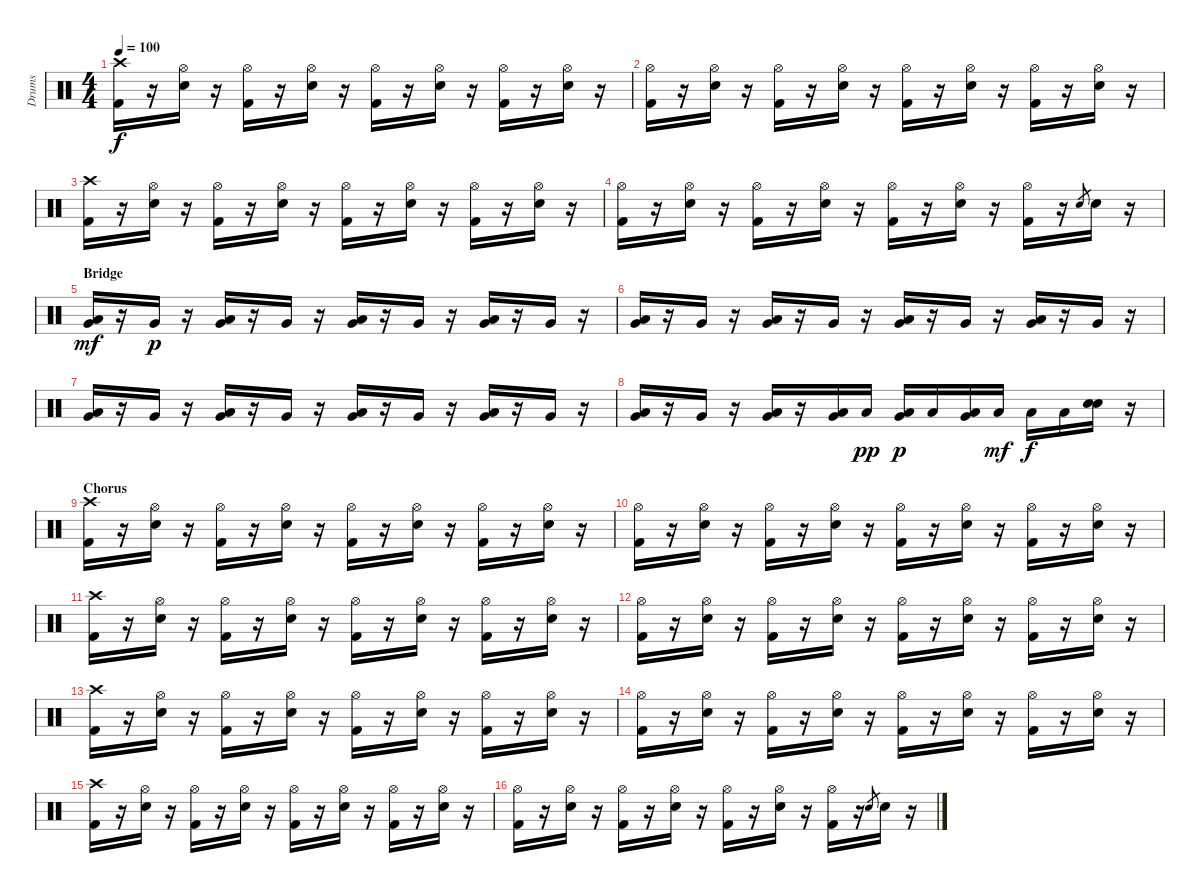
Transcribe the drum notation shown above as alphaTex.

\track ("Drums" "Drums") {instrument percussion}
\staff {score}
\articulation defaults
\ts (4 4)
\tempo 100
\clef neutral
\ks c
("Crash high (hit)" "Kick (hit) 2").16{dy f} r.16 ("Hi-Hat (open)" "Electric Snare (hit)").16 r.16 ("Hi-Hat (open)" "Kick (hit) 2").16 r.16 ("Hi-Hat (open)" "Electric Snare (hit)").16 r.16 ("Hi-Hat (open)" "Kick (hit) 2").16 r.16 ("Hi-Hat (open)" "Electric Snare (hit)").16 r.16 ("Hi-Hat (open)" "Kick (hit) 2").16 r.16 ("Hi-Hat (open)" "Electric Snare (hit)").16 r.16 |
("Hi-Hat (open)" "Kick (hit) 2").16 r.16 ("Hi-Hat (open)" "Electric Snare (hit)").16 r.16 ("Hi-Hat (open)" "Kick (hit) 2").16 r.16 ("Hi-Hat (open)" "Electric Snare (hit)").16 r.16 ("Hi-Hat (open)" "Kick (hit) 2").16 r.16 ("Hi-Hat (open)" "Electric Snare (hit)").16 r.16 ("Hi-Hat (open)" "Kick (hit) 2").16 r.16 ("Hi-Hat (open)" "Electric Snare (hit)").16 r.16 |
("Crash high (hit)" "Kick (hit) 2").16 r.16 ("Hi-Hat (open)" "Electric Snare (hit)").16 r.16 ("Hi-Hat (open)" "Kick (hit) 2").16 r.16 ("Hi-Hat (open)" "Electric Snare (hit)").16 r.16 ("Hi-Hat (open)" "Kick (hit) 2").16 r.16 ("Hi-Hat (open)" "Electric Snare (hit)").16 r.16 ("Hi-Hat (open)" "Kick (hit) 2").16 r.16 ("Hi-Hat (open)" "Electric Snare (hit)").16 r.16 |
("Hi-Hat (open)" "Kick (hit) 2").16 r.16 ("Hi-Hat (open)" "Electric Snare (hit)").16 r.16 ("Hi-Hat (open)" "Kick (hit) 2").16 r.16 ("Hi-Hat (open)" "Electric Snare (hit)").16 r.16 ("Hi-Hat (open)" "Kick (hit) 2").16 r.16 ("Hi-Hat (open)" "Electric Snare (hit)").16 r.16 ("Hi-Hat (open)" "Kick (hit) 2").16 r.16 "Electric Snare (hit)".8{gr} "Electric Snare (hit)".16 r.16 |
\section ("" "Bridge")
("Low Tom (hit)" "Very Low Tom (hit)").16{dy mf} r.16 "Very Low Tom (hit)".16{dy p} r.16 ("Low Tom (hit)" "Very Low Tom (hit)").16 r.16 "Very Low Tom (hit)".16 r.16 ("Low Tom (hit)" "Very Low Tom (hit)").16 r.16 "Very Low Tom (hit)".16 r.16 ("Low Tom (hit)" "Very Low Tom (hit)").16 r.16 "Very Low Tom (hit)".16 r.16 |
("Low Tom (hit)" "Very Low Tom (hit)").16 r.16 "Very Low Tom (hit)".16 r.16 ("Low Tom (hit)" "Very Low Tom (hit)").16 r.16 "Very Low Tom (hit)".16 r.16 ("Low Tom (hit)" "Very Low Tom (hit)").16 r.16 "Very Low Tom (hit)".16 r.16 ("Low Tom (hit)" "Very Low Tom (hit)").16 r.16 "Very Low Tom (hit)".16 r.16 |
("Low Tom (hit)" "Very Low Tom (hit)").16 r.16 "Very Low Tom (hit)".16 r.16 ("Low Tom (hit)" "Very Low Tom (hit)").16 r.16 "Very Low Tom (hit)".16 r.16 ("Low Tom (hit)" "Very Low Tom (hit)").16 r.16 "Very Low Tom (hit)".16 r.16 ("Low Tom (hit)" "Very Low Tom (hit)").16 r.16 "Very Low Tom (hit)".16 r.16 |
("Low Tom (hit)" "Very Low Tom (hit)").16 r.16 "Very Low Tom (hit)".16 r.16 ("Low Tom (hit)" "Very Low Tom (hit)").16 r.16 ("Low Tom (hit)" "Very Low Tom (hit)").16 "Low Tom (hit)".16{dy pp} ("Low Tom (hit)" "Very Low Tom (hit)").16{dy p} "Low Tom (hit)".16 ("Low Tom (hit)" "Very Low Tom (hit)").16 "Low Tom (hit)".16{dy mf} "Low Tom (hit)".16{dy f} "Low Tom (hit)".16 ("Electric Snare (hit)" "Electric Snare (hit)").16{bd 120} r.16 |
\section ("" "Chorus")
("Crash high (hit)" "Kick (hit) 2").16 r.16 ("Hi-Hat (open)" "Electric Snare (hit)").16 r.16 ("Hi-Hat (open)" "Kick (hit) 2").16 r.16 ("Hi-Hat (open)" "Electric Snare (hit)").16 r.16 ("Hi-Hat (open)" "Kick (hit) 2").16 r.16 ("Hi-Hat (open)" "Electric Snare (hit)").16 r.16 ("Hi-Hat (open)" "Kick (hit) 2").16 r.16 ("Hi-Hat (open)" "Electric Snare (hit)").16 r.16 |
("Hi-Hat (open)" "Kick (hit) 2").16 r.16 ("Hi-Hat (open)" "Electric Snare (hit)").16 r.16 ("Hi-Hat (open)" "Kick (hit) 2").16 r.16 ("Hi-Hat (open)" "Electric Snare (hit)").16 r.16 ("Hi-Hat (open)" "Kick (hit) 2").16 r.16 ("Hi-Hat (open)" "Electric Snare (hit)").16 r.16 ("Hi-Hat (open)" "Kick (hit) 2").16 r.16 ("Hi-Hat (open)" "Electric Snare (hit)").16 r.16 |
("Crash high (hit)" "Kick (hit) 2").16 r.16 ("Hi-Hat (open)" "Electric Snare (hit)").16 r.16 ("Hi-Hat (open)" "Kick (hit) 2").16 r.16 ("Hi-Hat (open)" "Electric Snare (hit)").16 r.16 ("Hi-Hat (open)" "Kick (hit) 2").16 r.16 ("Hi-Hat (open)" "Electric Snare (hit)").16 r.16 ("Hi-Hat (open)" "Kick (hit) 2").16 r.16 ("Hi-Hat (open)" "Electric Snare (hit)").16 r.16 |
("Hi-Hat (open)" "Kick (hit) 2").16 r.16 ("Hi-Hat (open)" "Electric Snare (hit)").16 r.16 ("Hi-Hat (open)" "Kick (hit) 2").16 r.16 ("Hi-Hat (open)" "Electric Snare (hit)").16 r.16 ("Hi-Hat (open)" "Kick (hit) 2").16 r.16 ("Hi-Hat (open)" "Electric Snare (hit)").16 r.16 ("Hi-Hat (open)" "Kick (hit) 2").16 r.16 ("Hi-Hat (open)" "Electric Snare (hit)").16 r.16 |
("Crash high (hit)" "Kick (hit) 2").16 r.16 ("Hi-Hat (open)" "Electric Snare (hit)").16 r.16 ("Hi-Hat (open)" "Kick (hit) 2").16 r.16 ("Hi-Hat (open)" "Electric Snare (hit)").16 r.16 ("Hi-Hat (open)" "Kick (hit) 2").16 r.16 ("Hi-Hat (open)" "Electric Snare (hit)").16 r.16 ("Hi-Hat (open)" "Kick (hit) 2").16 r.16 ("Hi-Hat (open)" "Electric Snare (hit)").16 r.16 |
("Hi-Hat (open)" "Kick (hit) 2").16 r.16 ("Hi-Hat (open)" "Electric Snare (hit)").16 r.16 ("Hi-Hat (open)" "Kick (hit) 2").16 r.16 ("Hi-Hat (open)" "Electric Snare (hit)").16 r.16 ("Hi-Hat (open)" "Kick (hit) 2").16 r.16 ("Hi-Hat (open)" "Electric Snare (hit)").16 r.16 ("Hi-Hat (open)" "Kick (hit) 2").16 r.16 ("Hi-Hat (open)" "Electric Snare (hit)").16 r.16 |
("Crash high (hit)" "Kick (hit) 2").16 r.16 ("Hi-Hat (open)" "Electric Snare (hit)").16 r.16 ("Hi-Hat (open)" "Kick (hit) 2").16 r.16 ("Hi-Hat (open)" "Electric Snare (hit)").16 r.16 ("Hi-Hat (open)" "Kick (hit) 2").16 r.16 ("Hi-Hat (open)" "Electric Snare (hit)").16 r.16 ("Hi-Hat (open)" "Kick (hit) 2").16 r.16 ("Hi-Hat (open)" "Electric Snare (hit)").16 r.16 |
("Hi-Hat (open)" "Kick (hit) 2").16 r.16 ("Hi-Hat (open)" "Electric Snare (hit)").16 r.16 ("Hi-Hat (open)" "Kick (hit) 2").16 r.16 ("Hi-Hat (open)" "Electric Snare (hit)").16 r.16 ("Hi-Hat (open)" "Kick (hit) 2").16 r.16 ("Hi-Hat (open)" "Electric Snare (hit)").16 r.16 ("Hi-Hat (open)" "Kick (hit) 2").16 r.16 "Electric Snare (hit)".8{gr} "Electric Snare (hit)".16 r.16
